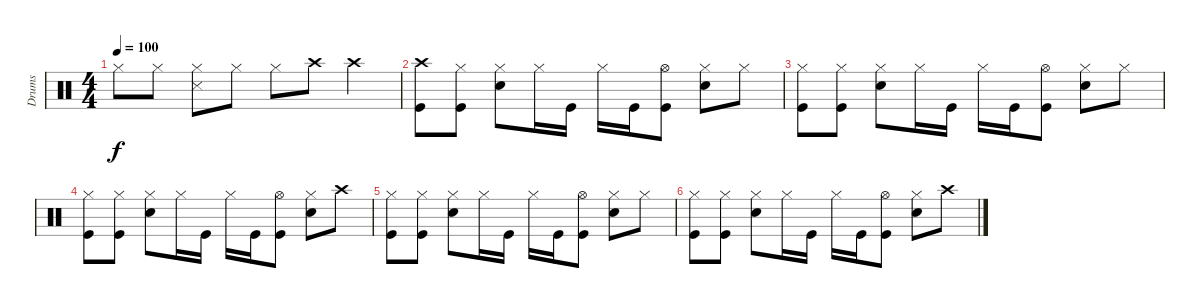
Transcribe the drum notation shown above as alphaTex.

\track ("Drums" "Drums") {instrument percussion}
\staff {score}
\articulation defaults
\ts (4 4)
\tempo 100
\clef neutral
\ks c "Hi-Hat (closed)".8{dy f} "Hi-Hat (closed)".8
("Hi-Hat (closed)" "Snare (side stick) 3").8 "Hi-Hat (closed)".8 "Hi-Hat (closed)".8 "Crash high (hit)".8 "Crash high (hit)".4 |
("Crash high (hit)" "Kick (hit)").8 ("Hi-Hat (closed)" "Kick (hit)").8 ("Hi-Hat (closed)" "Snare (hit) 2").8 "Hi-Hat (closed)".16 "Kick (hit)".16 "Hi-Hat (closed)".16 "Kick (hit)".16 ("Hi-Hat (open)" "Kick (hit)").8 ("Hi-Hat (closed)" "Snare (hit) 2").8 "Hi-Hat (closed)".8 |
("Hi-Hat (closed)" "Kick (hit)").8 ("Hi-Hat (closed)" "Kick (hit)").8 ("Hi-Hat (closed)" "Snare (hit) 2").8 "Hi-Hat (closed)".16 "Kick (hit)".16 "Hi-Hat (closed)".16 "Kick (hit)".16 ("Hi-Hat (open)" "Kick (hit)").8 ("Hi-Hat (closed)" "Snare (hit) 2").8 "Hi-Hat (closed)".8 |
("Hi-Hat (closed)" "Kick (hit)").8 ("Hi-Hat (closed)" "Kick (hit)").8 ("Hi-Hat (closed)" "Snare (hit) 2").8 "Hi-Hat (closed)".16 "Kick (hit)".16 "Hi-Hat (closed)".16 "Kick (hit)".16 ("Hi-Hat (open)" "Kick (hit)").8 ("Hi-Hat (closed)" "Snare (hit) 2").8 "Crash high (hit)".8 |
("Hi-Hat (closed)" "Kick (hit)").8 ("Hi-Hat (closed)" "Kick (hit)").8 ("Hi-Hat (closed)" "Snare (hit) 2").8 "Hi-Hat (closed)".16 "Kick (hit)".16 "Hi-Hat (closed)".16 "Kick (hit)".16 ("Hi-Hat (open)" "Kick (hit)").8 ("Hi-Hat (closed)" "Snare (hit) 2").8 "Hi-Hat (closed)".8 |
("Hi-Hat (closed)" "Kick (hit)").8 ("Hi-Hat (closed)" "Kick (hit)").8 ("Hi-Hat (closed)" "Snare (hit) 2").8 "Hi-Hat (closed)".16 "Kick (hit)".16 "Hi-Hat (closed)".16 "Kick (hit)".16 ("Hi-Hat (open)" "Kick (hit)").8 ("Hi-Hat (closed)" "Snare (hit) 2").8 "Crash high (hit)".8
